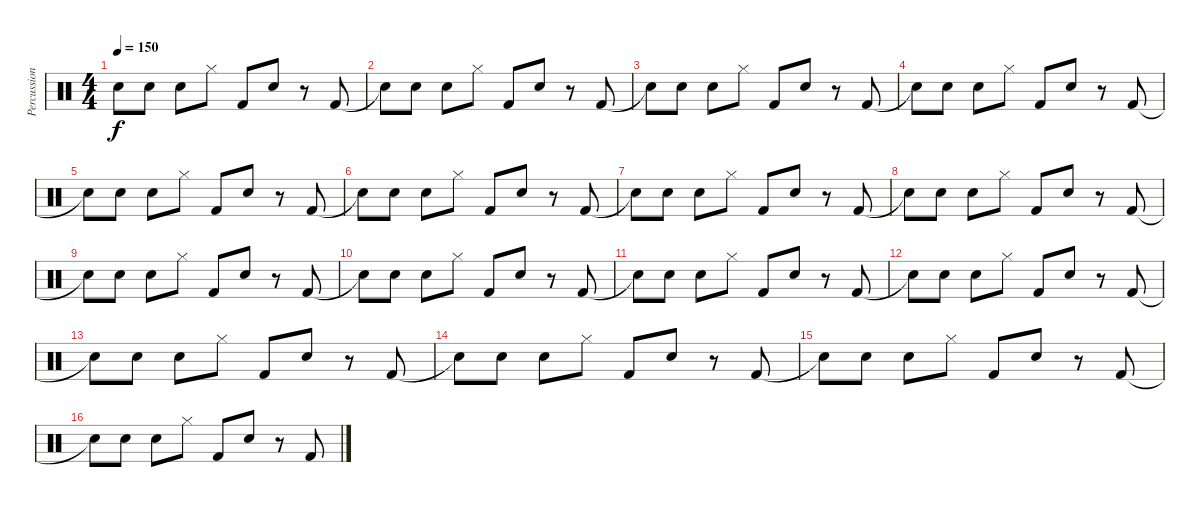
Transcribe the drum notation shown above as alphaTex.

\track ("Percussion" "Percussion") {instrument percussion}
\staff {score}
\articulation defaults
\ts (4 4)
\tempo 150
\clef neutral
\ks c "Snare (hit)"{t}.8{dy f} "Electric Snare (hit)".8 "Electric Snare (hit)".8 "Hi-Hat (closed)".8 "Kick (hit) 2".8 "Electric Snare (hit)".8
r.8 "Kick (hit) 2".8 |
"Snare (hit)"{t}.8 "Electric Snare (hit)".8 "Electric Snare (hit)".8 "Hi-Hat (closed)".8 "Kick (hit) 2".8 "Electric Snare (hit)".8 r.8 "Kick (hit) 2".8 |
"Snare (hit)"{t}.8 "Electric Snare (hit)".8 "Electric Snare (hit)".8 "Hi-Hat (closed)".8 "Kick (hit) 2".8 "Electric Snare (hit)".8 r.8 "Kick (hit) 2".8 |
"Snare (hit)"{t}.8 "Electric Snare (hit)".8 "Electric Snare (hit)".8 "Hi-Hat (closed)".8 "Kick (hit) 2".8 "Electric Snare (hit)".8 r.8 "Kick (hit) 2".8 |
"Snare (hit)"{t}.8 "Electric Snare (hit)".8 "Electric Snare (hit)".8 "Hi-Hat (closed)".8 "Kick (hit) 2".8 "Electric Snare (hit)".8 r.8 "Kick (hit) 2".8 |
"Snare (hit)"{t}.8 "Electric Snare (hit)".8 "Electric Snare (hit)".8 "Hi-Hat (closed)".8 "Kick (hit) 2".8 "Electric Snare (hit)".8 r.8 "Kick (hit) 2".8 |
"Snare (hit)"{t}.8 "Electric Snare (hit)".8 "Electric Snare (hit)".8 "Hi-Hat (closed)".8 "Kick (hit) 2".8 "Electric Snare (hit)".8 r.8 "Kick (hit) 2".8 |
"Snare (hit)"{t}.8 "Electric Snare (hit)".8 "Electric Snare (hit)".8 "Hi-Hat (closed)".8 "Kick (hit) 2".8 "Electric Snare (hit)".8 r.8 "Kick (hit) 2".8 |
"Snare (hit)"{t}.8 "Electric Snare (hit)".8 "Electric Snare (hit)".8 "Hi-Hat (closed)".8 "Kick (hit) 2".8 "Electric Snare (hit)".8 r.8 "Kick (hit) 2".8 |
"Snare (hit)"{t}.8 "Electric Snare (hit)".8 "Electric Snare (hit)".8 "Hi-Hat (closed)".8 "Kick (hit) 2".8 "Electric Snare (hit)".8 r.8 "Kick (hit) 2".8 |
"Snare (hit)"{t}.8 "Electric Snare (hit)".8 "Electric Snare (hit)".8 "Hi-Hat (closed)".8 "Kick (hit) 2".8 "Electric Snare (hit)".8 r.8 "Kick (hit) 2".8 |
"Snare (hit)"{t}.8 "Electric Snare (hit)".8 "Electric Snare (hit)".8 "Hi-Hat (closed)".8 "Kick (hit) 2".8 "Electric Snare (hit)".8 r.8 "Kick (hit) 2".8 |
"Snare (hit)"{t}.8 "Electric Snare (hit)".8 "Electric Snare (hit)".8 "Hi-Hat (closed)".8 "Kick (hit) 2".8 "Electric Snare (hit)".8 r.8 "Kick (hit) 2".8 |
"Snare (hit)"{t}.8 "Electric Snare (hit)".8 "Electric Snare (hit)".8 "Hi-Hat (closed)".8 "Kick (hit) 2".8 "Electric Snare (hit)".8 r.8 "Kick (hit) 2".8 |
"Snare (hit)"{t}.8 "Electric Snare (hit)".8 "Electric Snare (hit)".8 "Hi-Hat (closed)".8 "Kick (hit) 2".8 "Electric Snare (hit)".8 r.8 "Kick (hit) 2".8 |
"Snare (hit)"{t}.8 "Electric Snare (hit)".8 "Electric Snare (hit)".8 "Hi-Hat (closed)".8 "Kick (hit) 2".8 "Electric Snare (hit)".8 r.8 "Kick (hit) 2".8
